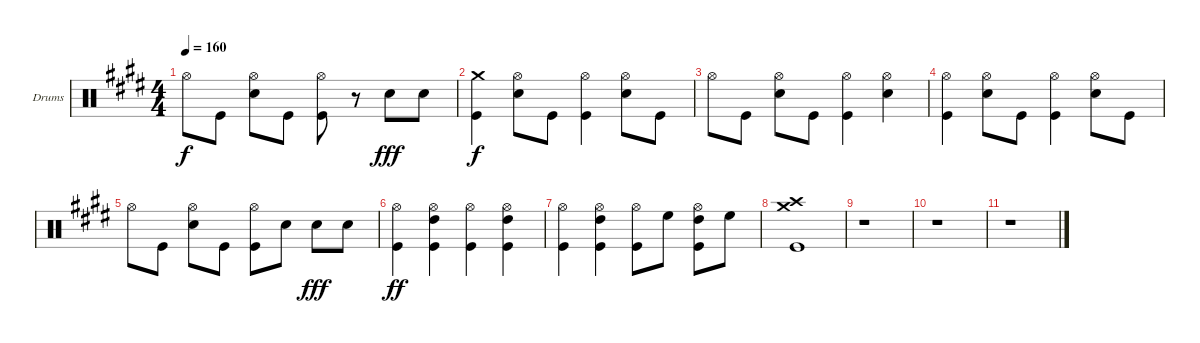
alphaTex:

\bracketExtendMode groupsimilarinstruments
\firstSystemTrackNameOrientation horizontal
\otherSystemsTrackNameOrientation horizontal
\track ("Drumkit" "Drums") {instrument percussion}
\staff {score}
\articulation defaults
\ts (4 4)
\tempo 160
\clef neutral
\ks e "Hi-Hat (open)".8{dy f} "Kick (hit)".8
("Hi-Hat (open)" "Snare (hit) 2").8 "Kick (hit)".8 ("Hi-Hat (open)" "Kick (hit)").8 r.8 "Snare (hit) 2".8{dy fff} "Snare (hit) 2".8 |
("Crash medium (hit)" "Kick (hit)").4{dy f} ("Hi-Hat (open)" "Snare (hit) 2").8 "Kick (hit)".8 ("Hi-Hat (open)" "Kick (hit)").4 ("Hi-Hat (open)" "Snare (hit) 2").8 "Kick (hit)".8 |
"Hi-Hat (open)".8 "Kick (hit)".8 ("Hi-Hat (open)" "Snare (hit) 2").8 "Kick (hit)".8 ("Hi-Hat (open)" "Kick (hit)").4 ("Hi-Hat (open)" "Snare (hit) 2").4 |
("Hi-Hat (open)" "Kick (hit)").4 ("Hi-Hat (open)" "Snare (hit) 2").8 "Kick (hit)".8 ("Hi-Hat (open)" "Kick (hit)").4 ("Hi-Hat (open)" "Snare (hit) 2").8 "Kick (hit)".8 |
"Hi-Hat (open)".8 "Kick (hit)".8 ("Hi-Hat (open)" "Snare (hit) 2").8 "Kick (hit)".8 ("Hi-Hat (open)" "Kick (hit)").8 "Snare (hit) 2".8 "Snare (hit) 2".8{dy fff} "Snare (hit) 2".8 |
("Hi-Hat (open)" "Kick (hit)").4{dy ff} ("Hi-Hat (open)" "High Tom (hit)" "Kick (hit)").4 ("Hi-Hat (open)" "Kick (hit)").4 ("Hi-Hat (open)" "High Tom (hit)" "Kick (hit)").4 |
("Hi-Hat (open)" "Kick (hit)").4 ("Hi-Hat (open)" "High Tom (hit)" "Kick (hit)").4 ("Hi-Hat (open)" "Kick (hit)").8 "High Floor Tom (hit)".8 ("Hi-Hat (open)" "High Tom (hit)" "Kick (hit)").8 "High Floor Tom (hit)".8 |
("Crash medium (hit)" "Crash high (hit)" "Kick (hit)").1 |
r.1 |
r.1 |
r.1
